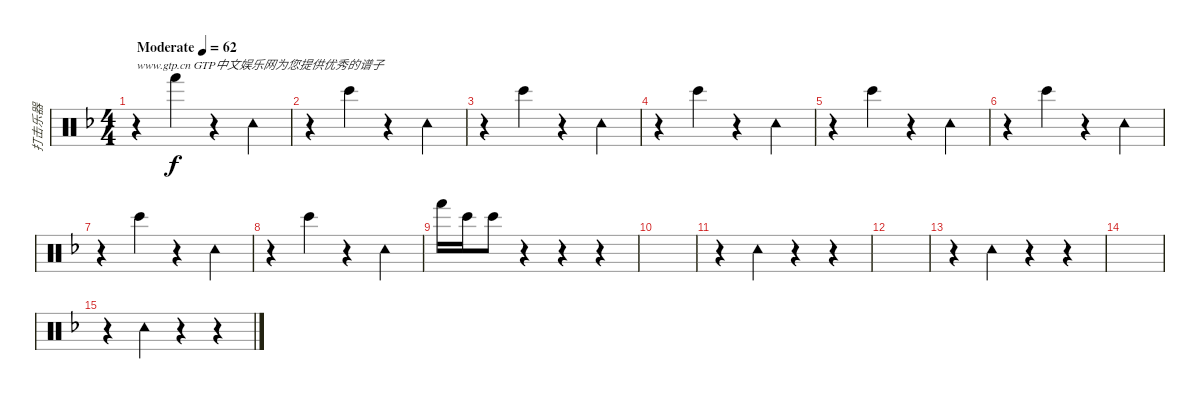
\track ("打击乐器" "打击乐器") {instrument percussion}
\staff {score}
\articulation defaults
\ts (4 4)
\tempo (62 "Moderate")
\clef neutral
\ks f
r.4{txt "www.gtp.cn GTP中文娱乐网为您提供优秀的谱子" dy f} "Hand (hit)".4 r.4 "Tambourine (hit)".4 |
r.4 "Bongo High (hit)".4 r.4 "Tambourine (hit)".4 |
r.4 "Bongo High (hit)".4 r.4 "Tambourine (hit)".4 |
r.4 "Bongo High (hit)".4 r.4 "Tambourine (hit)".4 |
r.4 "Bongo High (hit)".4 r.4 "Tambourine (hit)".4 |
r.4 "Bongo High (hit)".4 r.4 "Tambourine (hit)".4 |
r.4 "Bongo High (hit)".4 r.4 "Tambourine (hit)".4 |
r.4 "Bongo High (hit)".4 r.4 "Tambourine (hit)".4 |
"Hand (hit)".16 "Bongo High (hit)".16 "Bongo High (hit)".8 r.4 r.4 r.4 |
|
r.4 "Tambourine (hit)".4 r.4 r.4 |
|
r.4 "Tambourine (hit)".4 r.4 r.4 |
|
r.4 "Tambourine (hit)".4 r.4 r.4
